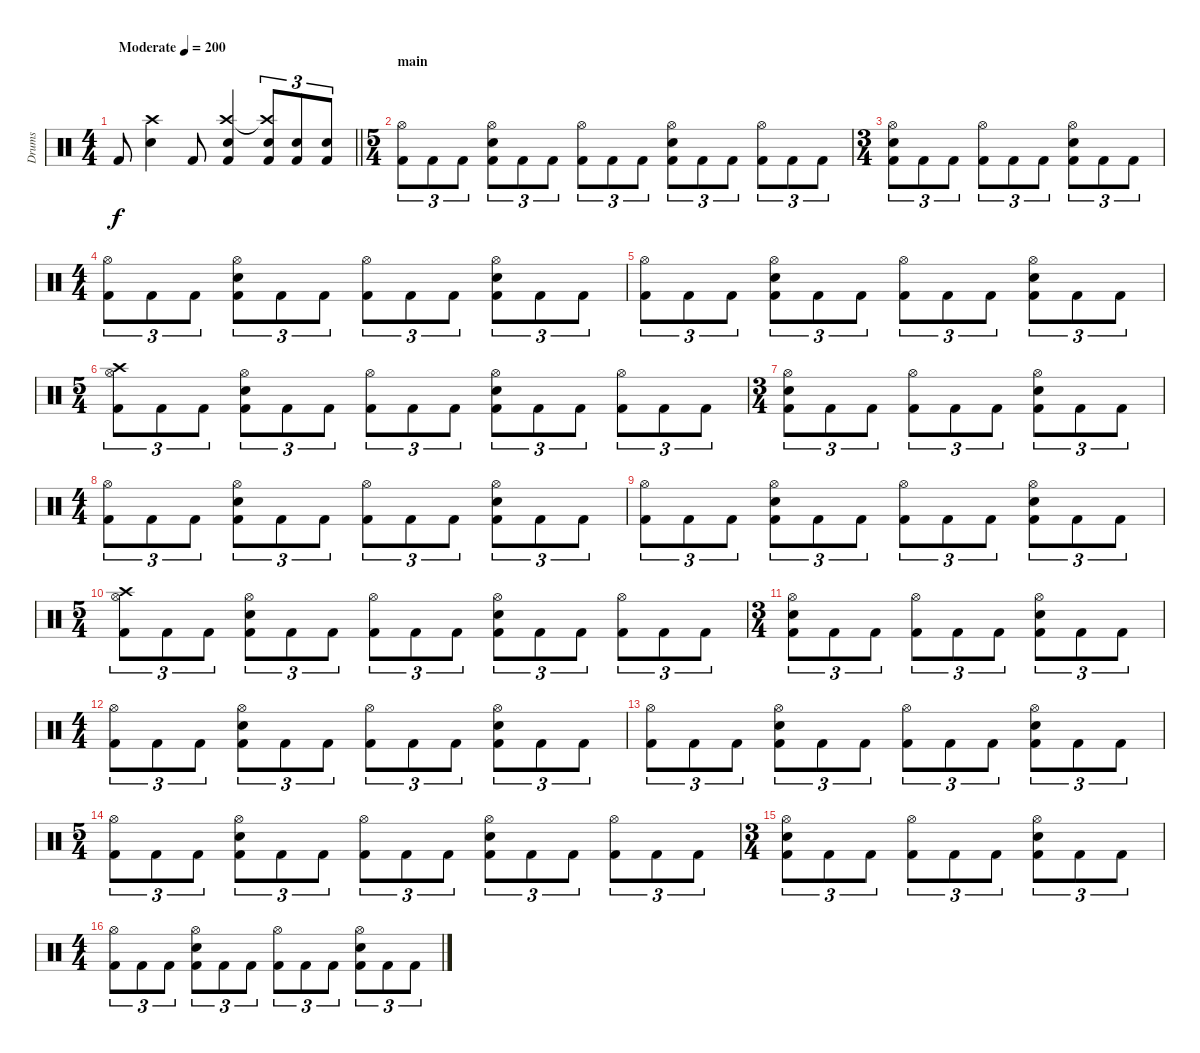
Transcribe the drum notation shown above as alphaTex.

\track ("Drums" "Drums") {instrument percussion}
\staff {score}
\articulation defaults
\ts (4 4)
\tempo (200 "Moderate")
\clef neutral
\barLineRight lightlight
\ks c "Kick (hit) 2".8{dy f}
("Crash high (hit)" "Electric Snare (hit)").4 "Kick (hit) 2".8 ("Crash high (hit)" "Electric Snare (hit)" "Kick (hit) 2").4 ("Crash high (hit)"{t} "Electric Snare (hit)" "Kick (hit) 2").8{tu (3 2)} ("Electric Snare (hit)" "Kick (hit) 2").8{tu (3 2)} ("Electric Snare (hit)" "Kick (hit) 2").8{tu (3 2)} |
\ts (5 4)
\section ("" "main")
("Hi-Hat (open)" "Kick (hit) 2").8{tu (3 2)} "Kick (hit) 2".8{tu (3 2)} "Kick (hit) 2".8{tu (3 2)} ("Hi-Hat (open)" "Electric Snare (hit)" "Kick (hit) 2").8{tu (3 2)} "Kick (hit) 2".8{tu (3 2)} "Kick (hit) 2".8{tu (3 2)} ("Hi-Hat (open)" "Kick (hit) 2").8{tu (3 2)} "Kick (hit) 2".8{tu (3 2)} "Kick (hit) 2".8{tu (3 2)} ("Hi-Hat (open)" "Electric Snare (hit)" "Kick (hit) 2").8{tu (3 2)} "Kick (hit) 2".8{tu (3 2)} "Kick (hit) 2".8{tu (3 2)} ("Hi-Hat (open)" "Kick (hit) 2").8{tu (3 2)} "Kick (hit) 2".8{tu (3 2)} "Kick (hit) 2".8{tu (3 2)} |
\ts (3 4)
("Hi-Hat (open)" "Electric Snare (hit)" "Kick (hit) 2").8{tu (3 2)} "Kick (hit) 2".8{tu (3 2)} "Kick (hit) 2".8{tu (3 2)} ("Hi-Hat (open)" "Kick (hit) 2").8{tu (3 2)} "Kick (hit) 2".8{tu (3 2)} "Kick (hit) 2".8{tu (3 2)} ("Hi-Hat (open)" "Electric Snare (hit)" "Kick (hit) 2").8{tu (3 2)} "Kick (hit) 2".8{tu (3 2)} "Kick (hit) 2".8{tu (3 2)} |
\ts (4 4)
("Hi-Hat (open)" "Kick (hit) 2").8{tu (3 2)} "Kick (hit) 2".8{tu (3 2)} "Kick (hit) 2".8{tu (3 2)} ("Hi-Hat (open)" "Electric Snare (hit)" "Kick (hit) 2").8{tu (3 2)} "Kick (hit) 2".8{tu (3 2)} "Kick (hit) 2".8{tu (3 2)} ("Hi-Hat (open)" "Kick (hit) 2").8{tu (3 2)} "Kick (hit) 2".8{tu (3 2)} "Kick (hit) 2".8{tu (3 2)} ("Hi-Hat (open)" "Electric Snare (hit)" "Kick (hit) 2").8{tu (3 2)} "Kick (hit) 2".8{tu (3 2)} "Kick (hit) 2".8{tu (3 2)} |
("Hi-Hat (open)" "Kick (hit) 2").8{tu (3 2)} "Kick (hit) 2".8{tu (3 2)} "Kick (hit) 2".8{tu (3 2)} ("Hi-Hat (open)" "Electric Snare (hit)" "Kick (hit) 2").8{tu (3 2)} "Kick (hit) 2".8{tu (3 2)} "Kick (hit) 2".8{tu (3 2)} ("Hi-Hat (open)" "Kick (hit) 2").8{tu (3 2)} "Kick (hit) 2".8{tu (3 2)} "Kick (hit) 2".8{tu (3 2)} ("Hi-Hat (open)" "Electric Snare (hit)" "Kick (hit) 2").8{tu (3 2)} "Kick (hit) 2".8{tu (3 2)} "Kick (hit) 2".8{tu (3 2)} |
\ts (5 4)
("Crash high (hit)" "Hi-Hat (open)" "Kick (hit) 2").8{tu (3 2)} "Kick (hit) 2".8{tu (3 2)} "Kick (hit) 2".8{tu (3 2)} ("Hi-Hat (open)" "Electric Snare (hit)" "Kick (hit) 2").8{tu (3 2)} "Kick (hit) 2".8{tu (3 2)} "Kick (hit) 2".8{tu (3 2)} ("Hi-Hat (open)" "Kick (hit) 2").8{tu (3 2)} "Kick (hit) 2".8{tu (3 2)} "Kick (hit) 2".8{tu (3 2)} ("Hi-Hat (open)" "Electric Snare (hit)" "Kick (hit) 2").8{tu (3 2)} "Kick (hit) 2".8{tu (3 2)} "Kick (hit) 2".8{tu (3 2)} ("Hi-Hat (open)" "Kick (hit) 2").8{tu (3 2)} "Kick (hit) 2".8{tu (3 2)} "Kick (hit) 2".8{tu (3 2)} |
\ts (3 4)
("Hi-Hat (open)" "Electric Snare (hit)" "Kick (hit) 2").8{tu (3 2)} "Kick (hit) 2".8{tu (3 2)} "Kick (hit) 2".8{tu (3 2)} ("Hi-Hat (open)" "Kick (hit) 2").8{tu (3 2)} "Kick (hit) 2".8{tu (3 2)} "Kick (hit) 2".8{tu (3 2)} ("Hi-Hat (open)" "Electric Snare (hit)" "Kick (hit) 2").8{tu (3 2)} "Kick (hit) 2".8{tu (3 2)} "Kick (hit) 2".8{tu (3 2)} |
\ts (4 4)
("Hi-Hat (open)" "Kick (hit) 2").8{tu (3 2)} "Kick (hit) 2".8{tu (3 2)} "Kick (hit) 2".8{tu (3 2)} ("Hi-Hat (open)" "Electric Snare (hit)" "Kick (hit) 2").8{tu (3 2)} "Kick (hit) 2".8{tu (3 2)} "Kick (hit) 2".8{tu (3 2)} ("Hi-Hat (open)" "Kick (hit) 2").8{tu (3 2)} "Kick (hit) 2".8{tu (3 2)} "Kick (hit) 2".8{tu (3 2)} ("Hi-Hat (open)" "Electric Snare (hit)" "Kick (hit) 2").8{tu (3 2)} "Kick (hit) 2".8{tu (3 2)} "Kick (hit) 2".8{tu (3 2)} |
("Hi-Hat (open)" "Kick (hit) 2").8{tu (3 2)} "Kick (hit) 2".8{tu (3 2)} "Kick (hit) 2".8{tu (3 2)} ("Hi-Hat (open)" "Electric Snare (hit)" "Kick (hit) 2").8{tu (3 2)} "Kick (hit) 2".8{tu (3 2)} "Kick (hit) 2".8{tu (3 2)} ("Hi-Hat (open)" "Kick (hit) 2").8{tu (3 2)} "Kick (hit) 2".8{tu (3 2)} "Kick (hit) 2".8{tu (3 2)} ("Hi-Hat (open)" "Electric Snare (hit)" "Kick (hit) 2").8{tu (3 2)} "Kick (hit) 2".8{tu (3 2)} "Kick (hit) 2".8{tu (3 2)} |
\ts (5 4)
("Crash high (hit)" "Hi-Hat (open)" "Kick (hit) 2").8{tu (3 2)} "Kick (hit) 2".8{tu (3 2)} "Kick (hit) 2".8{tu (3 2)} ("Hi-Hat (open)" "Electric Snare (hit)" "Kick (hit) 2").8{tu (3 2)} "Kick (hit) 2".8{tu (3 2)} "Kick (hit) 2".8{tu (3 2)} ("Hi-Hat (open)" "Kick (hit) 2").8{tu (3 2)} "Kick (hit) 2".8{tu (3 2)} "Kick (hit) 2".8{tu (3 2)} ("Hi-Hat (open)" "Electric Snare (hit)" "Kick (hit) 2").8{tu (3 2)} "Kick (hit) 2".8{tu (3 2)} "Kick (hit) 2".8{tu (3 2)} ("Hi-Hat (open)" "Kick (hit) 2").8{tu (3 2)} "Kick (hit) 2".8{tu (3 2)} "Kick (hit) 2".8{tu (3 2)} |
\ts (3 4)
("Hi-Hat (open)" "Electric Snare (hit)" "Kick (hit) 2").8{tu (3 2)} "Kick (hit) 2".8{tu (3 2)} "Kick (hit) 2".8{tu (3 2)} ("Hi-Hat (open)" "Kick (hit) 2").8{tu (3 2)} "Kick (hit) 2".8{tu (3 2)} "Kick (hit) 2".8{tu (3 2)} ("Hi-Hat (open)" "Electric Snare (hit)" "Kick (hit) 2").8{tu (3 2)} "Kick (hit) 2".8{tu (3 2)} "Kick (hit) 2".8{tu (3 2)} |
\ts (4 4)
("Hi-Hat (open)" "Kick (hit) 2").8{tu (3 2)} "Kick (hit) 2".8{tu (3 2)} "Kick (hit) 2".8{tu (3 2)} ("Hi-Hat (open)" "Electric Snare (hit)" "Kick (hit) 2").8{tu (3 2)} "Kick (hit) 2".8{tu (3 2)} "Kick (hit) 2".8{tu (3 2)} ("Hi-Hat (open)" "Kick (hit) 2").8{tu (3 2)} "Kick (hit) 2".8{tu (3 2)} "Kick (hit) 2".8{tu (3 2)} ("Hi-Hat (open)" "Electric Snare (hit)" "Kick (hit) 2").8{tu (3 2)} "Kick (hit) 2".8{tu (3 2)} "Kick (hit) 2".8{tu (3 2)} |
("Hi-Hat (open)" "Kick (hit) 2").8{tu (3 2)} "Kick (hit) 2".8{tu (3 2)} "Kick (hit) 2".8{tu (3 2)} ("Hi-Hat (open)" "Electric Snare (hit)" "Kick (hit) 2").8{tu (3 2)} "Kick (hit) 2".8{tu (3 2)} "Kick (hit) 2".8{tu (3 2)} ("Hi-Hat (open)" "Kick (hit) 2").8{tu (3 2)} "Kick (hit) 2".8{tu (3 2)} "Kick (hit) 2".8{tu (3 2)} ("Hi-Hat (open)" "Electric Snare (hit)" "Kick (hit) 2").8{tu (3 2)} "Kick (hit) 2".8{tu (3 2)} "Kick (hit) 2".8{tu (3 2)} |
\ts (5 4)
("Hi-Hat (open)" "Kick (hit) 2").8{tu (3 2)} "Kick (hit) 2".8{tu (3 2)} "Kick (hit) 2".8{tu (3 2)} ("Hi-Hat (open)" "Electric Snare (hit)" "Kick (hit) 2").8{tu (3 2)} "Kick (hit) 2".8{tu (3 2)} "Kick (hit) 2".8{tu (3 2)} ("Hi-Hat (open)" "Kick (hit) 2").8{tu (3 2)} "Kick (hit) 2".8{tu (3 2)} "Kick (hit) 2".8{tu (3 2)} ("Hi-Hat (open)" "Electric Snare (hit)" "Kick (hit) 2").8{tu (3 2)} "Kick (hit) 2".8{tu (3 2)} "Kick (hit) 2".8{tu (3 2)} ("Hi-Hat (open)" "Kick (hit) 2").8{tu (3 2)} "Kick (hit) 2".8{tu (3 2)} "Kick (hit) 2".8{tu (3 2)} |
\ts (3 4)
("Hi-Hat (open)" "Electric Snare (hit)" "Kick (hit) 2").8{tu (3 2)} "Kick (hit) 2".8{tu (3 2)} "Kick (hit) 2".8{tu (3 2)} ("Hi-Hat (open)" "Kick (hit) 2").8{tu (3 2)} "Kick (hit) 2".8{tu (3 2)} "Kick (hit) 2".8{tu (3 2)} ("Hi-Hat (open)" "Electric Snare (hit)" "Kick (hit) 2").8{tu (3 2)} "Kick (hit) 2".8{tu (3 2)} "Kick (hit) 2".8{tu (3 2)} |
\ts (4 4)
("Hi-Hat (open)" "Kick (hit) 2").8{tu (3 2)} "Kick (hit) 2".8{tu (3 2)} "Kick (hit) 2".8{tu (3 2)} ("Hi-Hat (open)" "Electric Snare (hit)" "Kick (hit) 2").8{tu (3 2)} "Kick (hit) 2".8{tu (3 2)} "Kick (hit) 2".8{tu (3 2)} ("Hi-Hat (open)" "Kick (hit) 2").8{tu (3 2)} "Kick (hit) 2".8{tu (3 2)} "Kick (hit) 2".8{tu (3 2)} ("Hi-Hat (open)" "Electric Snare (hit)" "Kick (hit) 2").8{tu (3 2)} "Kick (hit) 2".8{tu (3 2)} "Kick (hit) 2".8{tu (3 2)}
